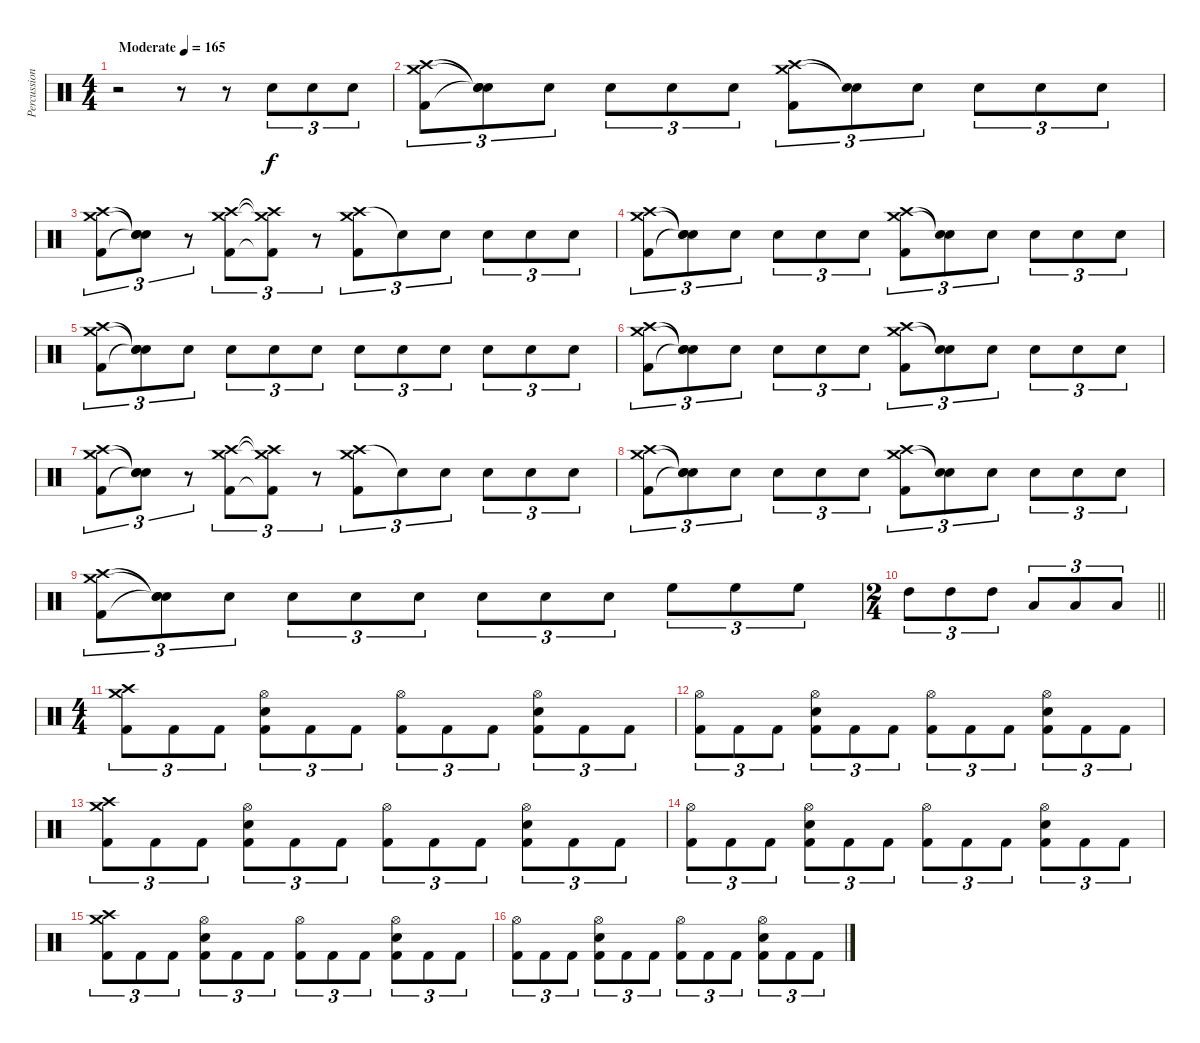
\track ("Percussioni" "Percussion") {instrument percussion}
\staff {score}
\articulation defaults
\ts (4 4)
\tempo (165 "Moderate")
\clef neutral
\ks c
r.2{dy f} r.8 r.8 "Electric Snare (hit)".8{tu (3 2)} "Electric Snare (hit)".8{tu (3 2)} "Electric Snare (hit)".8{tu (3 2)} |
("Crash high (hit)" "Crash medium (hit)" "Kick (hit) 2").8{tu (3 2)} ("Snare (hit)"{t} "Snare (hit)"{t} "Snare (hit)"{t}).8{tu (3 2)} "Electric Snare (hit)".8{tu (3 2)} "Electric Snare (hit)".8{tu (3 2)} "Electric Snare (hit)".8{tu (3 2)} "Electric Snare (hit)".8{tu (3 2)} ("Crash medium (hit)" "Crash high (hit)" "Kick (hit) 2").8{tu (3 2)} ("Snare (hit)"{t} "Snare (hit)"{t}).8{tu (3 2)} "Electric Snare (hit)".8{tu (3 2)} "Electric Snare (hit)".8{tu (3 2)} "Electric Snare (hit)".8{tu (3 2)} "Electric Snare (hit)".8{tu (3 2)} |
("Crash medium (hit)" "Crash high (hit)" "Kick (hit) 2").8{tu (3 2)} ("Snare (hit)"{t} "Snare (hit)"{t} "Snare (hit)"{t}).8{tu (3 2)} r.8{tu (3 2)} ("Crash high (hit)" "Crash medium (hit)" "Kick (hit) 2").8{tu (3 2)} ("Crash high (hit)"{t} "Crash medium (hit)"{t} "Kick (hit) 2"{t}).8{tu (3 2)} r.8{tu (3 2)} ("Crash high (hit)" "Crash medium (hit)" "Kick (hit) 2").8{tu (3 2)} "Snare (hit)"{t}.8{tu (3 2)} "Electric Snare (hit)".8{tu (3 2)} "Electric Snare (hit)".8{tu (3 2)} "Electric Snare (hit)".8{tu (3 2)} "Electric Snare (hit)".8{tu (3 2)} |
("Crash high (hit)" "Crash medium (hit)" "Kick (hit) 2").8{tu (3 2)} ("Snare (hit)"{t} "Snare (hit)"{t} "Snare (hit)"{t}).8{tu (3 2)} "Electric Snare (hit)".8{tu (3 2)} "Electric Snare (hit)".8{tu (3 2)} "Electric Snare (hit)".8{tu (3 2)} "Electric Snare (hit)".8{tu (3 2)} ("Crash medium (hit)" "Crash high (hit)" "Kick (hit) 2").8{tu (3 2)} ("Snare (hit)"{t} "Snare (hit)"{t}).8{tu (3 2)} "Electric Snare (hit)".8{tu (3 2)} "Electric Snare (hit)".8{tu (3 2)} "Electric Snare (hit)".8{tu (3 2)} "Electric Snare (hit)".8{tu (3 2)} |
("Crash high (hit)" "Crash medium (hit)" "Kick (hit) 2").8{tu (3 2)} ("Snare (hit)"{t} "Snare (hit)"{t} "Snare (hit)"{t}).8{tu (3 2)} "Electric Snare (hit)".8{tu (3 2)} "Electric Snare (hit)".8{tu (3 2)} "Electric Snare (hit)".8{tu (3 2)} "Electric Snare (hit)".8{tu (3 2)} "Electric Snare (hit)".8{tu (3 2)} "Electric Snare (hit)".8{tu (3 2)} "Electric Snare (hit)".8{tu (3 2)} "Electric Snare (hit)".8{tu (3 2)} "Electric Snare (hit)".8{tu (3 2)} "Electric Snare (hit)".8{tu (3 2)} |
("Crash high (hit)" "Crash medium (hit)" "Kick (hit) 2").8{tu (3 2)} ("Snare (hit)"{t} "Snare (hit)"{t} "Snare (hit)"{t}).8{tu (3 2)} "Electric Snare (hit)".8{tu (3 2)} "Electric Snare (hit)".8{tu (3 2)} "Electric Snare (hit)".8{tu (3 2)} "Electric Snare (hit)".8{tu (3 2)} ("Crash medium (hit)" "Crash high (hit)" "Kick (hit) 2").8{tu (3 2)} ("Snare (hit)"{t} "Snare (hit)"{t}).8{tu (3 2)} "Electric Snare (hit)".8{tu (3 2)} "Electric Snare (hit)".8{tu (3 2)} "Electric Snare (hit)".8{tu (3 2)} "Electric Snare (hit)".8{tu (3 2)} |
("Crash medium (hit)" "Crash high (hit)" "Kick (hit) 2").8{tu (3 2)} ("Snare (hit)"{t} "Snare (hit)"{t} "Snare (hit)"{t}).8{tu (3 2)} r.8{tu (3 2)} ("Crash high (hit)" "Crash medium (hit)" "Kick (hit) 2").8{tu (3 2)} ("Crash high (hit)"{t} "Crash medium (hit)"{t} "Kick (hit) 2"{t}).8{tu (3 2)} r.8{tu (3 2)} ("Crash high (hit)" "Crash medium (hit)" "Kick (hit) 2").8{tu (3 2)} "Snare (hit)"{t}.8{tu (3 2)} "Electric Snare (hit)".8{tu (3 2)} "Electric Snare (hit)".8{tu (3 2)} "Electric Snare (hit)".8{tu (3 2)} "Electric Snare (hit)".8{tu (3 2)} |
("Crash high (hit)" "Crash medium (hit)" "Kick (hit) 2").8{tu (3 2)} ("Snare (hit)"{t} "Snare (hit)"{t} "Snare (hit)"{t}).8{tu (3 2)} "Electric Snare (hit)".8{tu (3 2)} "Electric Snare (hit)".8{tu (3 2)} "Electric Snare (hit)".8{tu (3 2)} "Electric Snare (hit)".8{tu (3 2)} ("Crash medium (hit)" "Crash high (hit)" "Kick (hit) 2").8{tu (3 2)} ("Snare (hit)"{t} "Snare (hit)"{t}).8{tu (3 2)} "Electric Snare (hit)".8{tu (3 2)} "Electric Snare (hit)".8{tu (3 2)} "Electric Snare (hit)".8{tu (3 2)} "Electric Snare (hit)".8{tu (3 2)} |
("Crash high (hit)" "Crash medium (hit)" "Kick (hit) 2").8{tu (3 2)} ("Snare (hit)"{t} "Snare (hit)"{t} "Snare (hit)"{t}).8{tu (3 2)} "Electric Snare (hit)".8{tu (3 2)} "Electric Snare (hit)".8{tu (3 2)} "Electric Snare (hit)".8{tu (3 2)} "Electric Snare (hit)".8{tu (3 2)} "Electric Snare (hit)".8{tu (3 2)} "Electric Snare (hit)".8{tu (3 2)} "Electric Snare (hit)".8{tu (3 2)} "High Floor Tom (hit)".8{tu (3 2)} "High Floor Tom (hit)".8{tu (3 2)} "High Floor Tom (hit)".8{tu (3 2)} |
\ts (2 4)
\barLineRight lightlight "High Tom (hit)".8{tu (3 2)} "High Tom (hit)".8{tu (3 2)} "High Tom (hit)".8{tu (3 2)} "Low Tom (hit)".8{tu (3 2)} "Low Tom (hit)".8{tu (3 2)} "Low Tom (hit)".8{tu (3 2)}
|
\ts (4 4)
\section ("" "")
("Crash high (hit)" "Crash medium (hit)" "Kick (hit) 2").8{tu (3 2)} "Kick (hit) 2".8{tu (3 2)} "Kick (hit) 2".8{tu (3 2)} ("Hi-Hat (open)" "Electric Snare (hit)" "Kick (hit) 2").8{tu (3 2)} "Kick (hit) 2".8{tu (3 2)} "Kick (hit) 2".8{tu (3 2)} ("Hi-Hat (open)" "Kick (hit) 2").8{tu (3 2)} "Kick (hit) 2".8{tu (3 2)} "Kick (hit) 2".8{tu (3 2)} ("Hi-Hat (open)" "Electric Snare (hit)" "Kick (hit) 2").8{tu (3 2)} "Kick (hit) 2".8{tu (3 2)} "Kick (hit) 2".8{tu (3 2)} |
("Hi-Hat (open)" "Kick (hit) 2").8{tu (3 2)} "Kick (hit) 2".8{tu (3 2)} "Kick (hit) 2".8{tu (3 2)} ("Hi-Hat (open)" "Electric Snare (hit)" "Kick (hit) 2").8{tu (3 2)} "Kick (hit) 2".8{tu (3 2)} "Kick (hit) 2".8{tu (3 2)} ("Hi-Hat (open)" "Kick (hit) 2").8{tu (3 2)} "Kick (hit) 2".8{tu (3 2)} "Kick (hit) 2".8{tu (3 2)} ("Hi-Hat (open)" "Electric Snare (hit)" "Kick (hit) 2").8{tu (3 2)} "Kick (hit) 2".8{tu (3 2)} "Kick (hit) 2".8{tu (3 2)} |
("Crash high (hit)" "Crash medium (hit)" "Kick (hit) 2").8{tu (3 2)} "Kick (hit) 2".8{tu (3 2)} "Kick (hit) 2".8{tu (3 2)} ("Hi-Hat (open)" "Electric Snare (hit)" "Kick (hit) 2").8{tu (3 2)} "Kick (hit) 2".8{tu (3 2)} "Kick (hit) 2".8{tu (3 2)} ("Hi-Hat (open)" "Kick (hit) 2").8{tu (3 2)} "Kick (hit) 2".8{tu (3 2)} "Kick (hit) 2".8{tu (3 2)} ("Hi-Hat (open)" "Electric Snare (hit)" "Kick (hit) 2").8{tu (3 2)} "Kick (hit) 2".8{tu (3 2)} "Kick (hit) 2".8{tu (3 2)} |
("Hi-Hat (open)" "Kick (hit) 2").8{tu (3 2)} "Kick (hit) 2".8{tu (3 2)} "Kick (hit) 2".8{tu (3 2)} ("Hi-Hat (open)" "Electric Snare (hit)" "Kick (hit) 2").8{tu (3 2)} "Kick (hit) 2".8{tu (3 2)} "Kick (hit) 2".8{tu (3 2)} ("Hi-Hat (open)" "Kick (hit) 2").8{tu (3 2)} "Kick (hit) 2".8{tu (3 2)} "Kick (hit) 2".8{tu (3 2)} ("Hi-Hat (open)" "Electric Snare (hit)" "Kick (hit) 2").8{tu (3 2)} "Kick (hit) 2".8{tu (3 2)} "Kick (hit) 2".8{tu (3 2)} |
("Crash high (hit)" "Crash medium (hit)" "Kick (hit) 2").8{tu (3 2)} "Kick (hit) 2".8{tu (3 2)} "Kick (hit) 2".8{tu (3 2)} ("Hi-Hat (open)" "Electric Snare (hit)" "Kick (hit) 2").8{tu (3 2)} "Kick (hit) 2".8{tu (3 2)} "Kick (hit) 2".8{tu (3 2)} ("Hi-Hat (open)" "Kick (hit) 2").8{tu (3 2)} "Kick (hit) 2".8{tu (3 2)} "Kick (hit) 2".8{tu (3 2)} ("Hi-Hat (open)" "Electric Snare (hit)" "Kick (hit) 2").8{tu (3 2)} "Kick (hit) 2".8{tu (3 2)} "Kick (hit) 2".8{tu (3 2)} |
("Hi-Hat (open)" "Kick (hit) 2").8{tu (3 2)} "Kick (hit) 2".8{tu (3 2)} "Kick (hit) 2".8{tu (3 2)} ("Hi-Hat (open)" "Electric Snare (hit)" "Kick (hit) 2").8{tu (3 2)} "Kick (hit) 2".8{tu (3 2)} "Kick (hit) 2".8{tu (3 2)} ("Hi-Hat (open)" "Kick (hit) 2").8{tu (3 2)} "Kick (hit) 2".8{tu (3 2)} "Kick (hit) 2".8{tu (3 2)} ("Hi-Hat (open)" "Electric Snare (hit)" "Kick (hit) 2").8{tu (3 2)} "Kick (hit) 2".8{tu (3 2)} "Kick (hit) 2".8{tu (3 2)}
